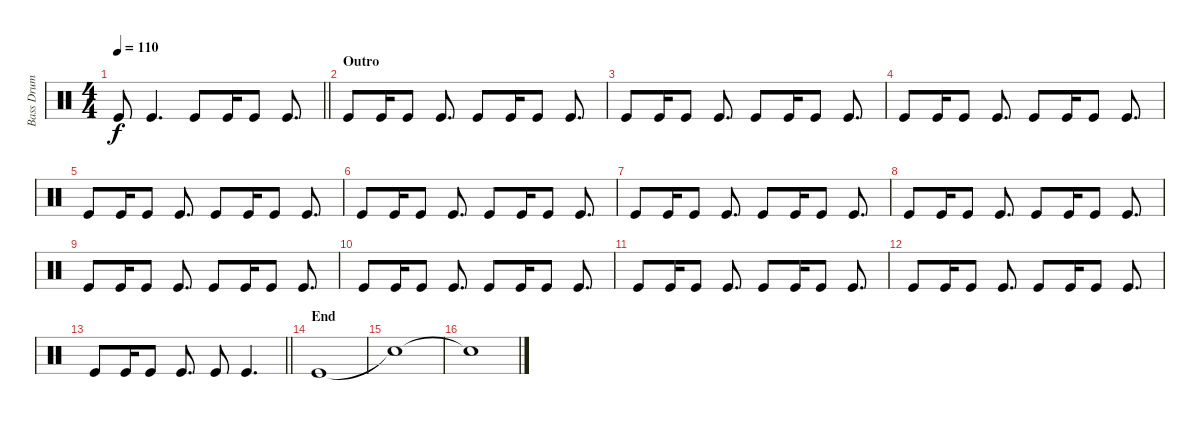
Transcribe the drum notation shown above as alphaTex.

\track ("Bass Drum" "Bass Drum") {instrument percussion}
\staff {score}
\articulation defaults
\ts (4 4)
\tempo 110
\clef neutral
\barLineRight lightlight
\ks c "Kick (hit)".8{dy f} "Kick (hit)".4{d} "Kick (hit)".8 "Kick (hit)".16 "Kick (hit)".8 "Kick (hit)".8{d}
|
\section ("" "Outro")
"Kick (hit)".8 "Kick (hit)".16 "Kick (hit)".8 "Kick (hit)".8{d} "Kick (hit)".8 "Kick (hit)".16 "Kick (hit)".8 "Kick (hit)".8{d} |
"Kick (hit)".8 "Kick (hit)".16 "Kick (hit)".8 "Kick (hit)".8{d} "Kick (hit)".8 "Kick (hit)".16 "Kick (hit)".8 "Kick (hit)".8{d} |
"Kick (hit)".8 "Kick (hit)".16 "Kick (hit)".8 "Kick (hit)".8{d} "Kick (hit)".8 "Kick (hit)".16 "Kick (hit)".8 "Kick (hit)".8{d} |
"Kick (hit)".8 "Kick (hit)".16 "Kick (hit)".8 "Kick (hit)".8{d} "Kick (hit)".8 "Kick (hit)".16 "Kick (hit)".8 "Kick (hit)".8{d} |
"Kick (hit)".8 "Kick (hit)".16 "Kick (hit)".8 "Kick (hit)".8{d} "Kick (hit)".8 "Kick (hit)".16 "Kick (hit)".8 "Kick (hit)".8{d} |
"Kick (hit)".8 "Kick (hit)".16 "Kick (hit)".8 "Kick (hit)".8{d} "Kick (hit)".8 "Kick (hit)".16 "Kick (hit)".8 "Kick (hit)".8{d} |
"Kick (hit)".8 "Kick (hit)".16 "Kick (hit)".8 "Kick (hit)".8{d} "Kick (hit)".8 "Kick (hit)".16 "Kick (hit)".8 "Kick (hit)".8{d} |
"Kick (hit)".8 "Kick (hit)".16 "Kick (hit)".8 "Kick (hit)".8{d} "Kick (hit)".8 "Kick (hit)".16 "Kick (hit)".8 "Kick (hit)".8{d} |
"Kick (hit)".8 "Kick (hit)".16 "Kick (hit)".8 "Kick (hit)".8{d} "Kick (hit)".8 "Kick (hit)".16 "Kick (hit)".8 "Kick (hit)".8{d} |
"Kick (hit)".8 "Kick (hit)".16 "Kick (hit)".8 "Kick (hit)".8{d} "Kick (hit)".8 "Kick (hit)".16 "Kick (hit)".8 "Kick (hit)".8{d} |
"Kick (hit)".8 "Kick (hit)".16 "Kick (hit)".8 "Kick (hit)".8{d} "Kick (hit)".8 "Kick (hit)".16 "Kick (hit)".8 "Kick (hit)".8{d} |
\barLineRight lightlight "Kick (hit)".8 "Kick (hit)".16 "Kick (hit)".8 "Kick (hit)".8{d} "Kick (hit)".8 "Kick (hit)".4{d}
|
\section ("" "End")
"Kick (hit)".1 |
"Snare (hit)"{t}.1 |
"Snare (hit)"{t}.1
